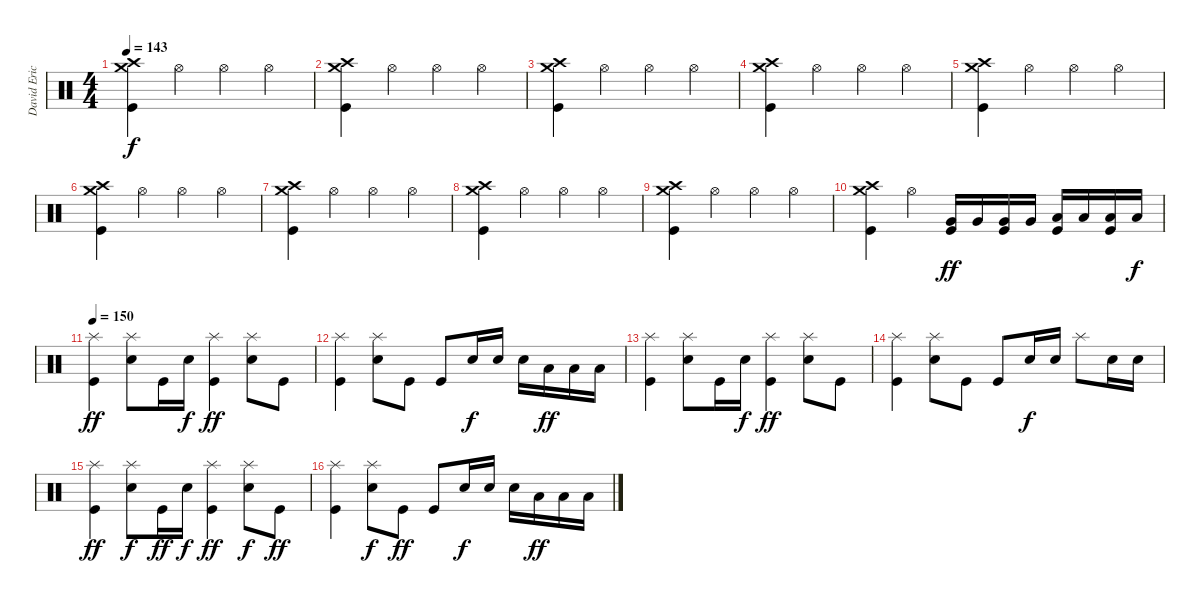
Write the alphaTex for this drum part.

\track ("David Eric Grohl" "David Eric") {instrument percussion}
\staff {score}
\articulation defaults
\ts (4 4)
\tempo 143
\clef neutral
\ks c
("Crash medium (hit)" "Crash high (hit)" "Kick (hit)").4{dy f} "Hi-Hat (open)".4 "Hi-Hat (open)".4 "Hi-Hat (open)".4 |
("Crash medium (hit)" "Crash high (hit)" "Kick (hit)").4 "Hi-Hat (open)".4 "Hi-Hat (open)".4 "Hi-Hat (open)".4 |
("Crash medium (hit)" "Crash high (hit)" "Kick (hit)").4 "Hi-Hat (open)".4 "Hi-Hat (open)".4 "Hi-Hat (open)".4 |
("Crash medium (hit)" "Crash high (hit)" "Kick (hit)").4 "Hi-Hat (open)".4 "Hi-Hat (open)".4 "Hi-Hat (open)".4 |
("Crash medium (hit)" "Crash high (hit)" "Kick (hit)").4 "Hi-Hat (open)".4 "Hi-Hat (open)".4 "Hi-Hat (open)".4 |
("Crash medium (hit)" "Crash high (hit)" "Kick (hit)").4 "Hi-Hat (open)".4 "Hi-Hat (open)".4 "Hi-Hat (open)".4 |
("Crash medium (hit)" "Crash high (hit)" "Kick (hit)").4 "Hi-Hat (open)".4 "Hi-Hat (open)".4 "Hi-Hat (open)".4 |
("Crash medium (hit)" "Crash high (hit)" "Kick (hit)").4 "Hi-Hat (open)".4 "Hi-Hat (open)".4 "Hi-Hat (open)".4 |
("Crash medium (hit)" "Crash high (hit)" "Kick (hit)").4 "Hi-Hat (open)".4 "Hi-Hat (open)".4 "Hi-Hat (open)".4 |
("Crash medium (hit)" "Crash high (hit)" "Kick (hit)").4 "Hi-Hat (open)".4 ("Very Low Tom (hit)" "Kick (hit)").16{dy ff} "Very Low Tom (hit)".16 ("Very Low Tom (hit)" "Kick (hit)").16 "Very Low Tom (hit)".16 ("Low Tom (hit)" "Kick (hit)").16 "Low Tom (hit)".16 ("Low Tom (hit)" "Kick (hit)").16 "Low Tom (hit)".16{dy f} |
\tempo 150
("Splash (hit)" "Kick (hit)").4{dy ff} ("Splash (hit)" "Snare (hit) 2").8 "Kick (hit)".16 "Snare (hit) 2".16{dy f} ("Splash (hit)" "Kick (hit)").4{dy ff} ("Splash (hit)" "Snare (hit) 2").8 "Kick (hit)".8 |
("Splash (hit)" "Kick (hit)").4 ("Splash (hit)" "Snare (hit) 2").8 "Kick (hit)".8 "Kick (hit)".8 "Snare (hit) 2".16{dy f} "Snare (hit) 2".16 "Snare (hit) 2".16 "Low Tom (hit)".16{dy ff} "Low Tom (hit)".16 "Low Tom (hit)".16 |
("Splash (hit)" "Kick (hit)").4 ("Splash (hit)" "Snare (hit) 2").8 "Kick (hit)".16 "Snare (hit) 2".16{dy f} ("Splash (hit)" "Kick (hit)").4{dy ff} ("Splash (hit)" "Snare (hit) 2").8 "Kick (hit)".8 |
("Splash (hit)" "Kick (hit)").4 ("Splash (hit)" "Snare (hit) 2").8 "Kick (hit)".8 "Kick (hit)".8 "Snare (hit) 2".16{dy f} "Snare (hit) 2".16 "Splash (hit)".8 "Snare (hit) 2".16 "Snare (hit) 2".16 |
("Splash (hit)" "Kick (hit)").4{dy ff} ("Splash (hit)" "Snare (hit) 2").8{dy f} "Kick (hit)".16{dy ff} "Snare (hit) 2".16{dy f} ("Splash (hit)" "Kick (hit)").4{dy ff} ("Splash (hit)" "Snare (hit) 2").8{dy f} "Kick (hit)".8{dy ff} |
("Splash (hit)" "Kick (hit)").4 ("Splash (hit)" "Snare (hit) 2").8{dy f} "Kick (hit)".8{dy ff} "Kick (hit)".8 "Snare (hit) 2".16{dy f} "Snare (hit) 2".16 "Snare (hit) 2".16 "Low Tom (hit)".16{dy ff} "Low Tom (hit)".16 "Low Tom (hit)".16
